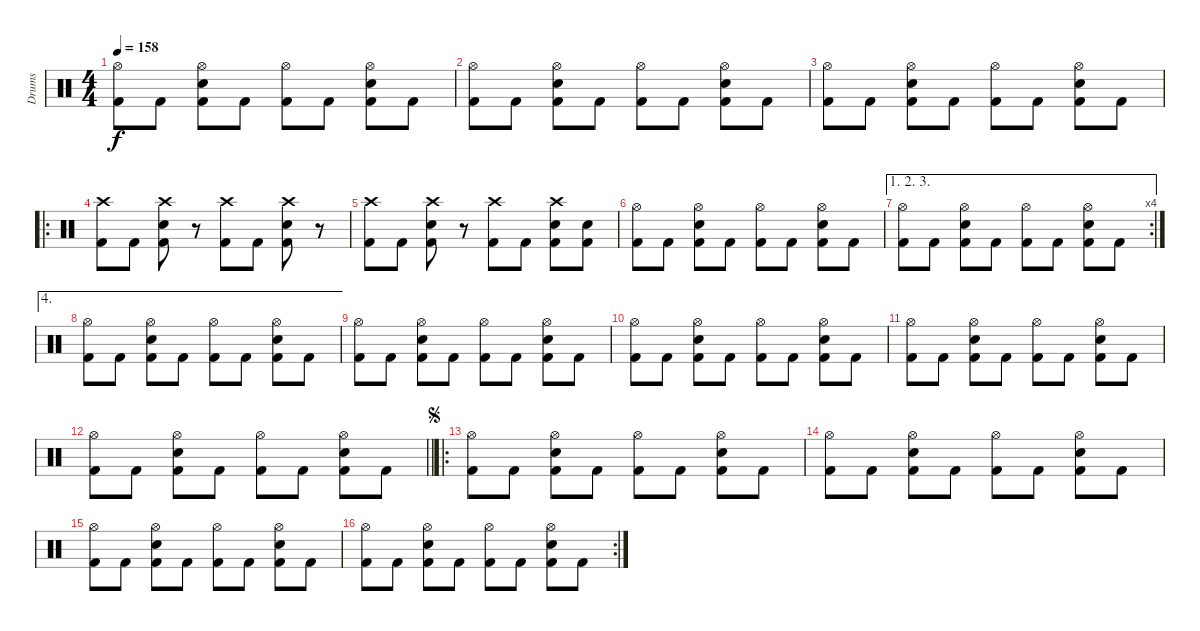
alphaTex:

\track ("Drums" "Drums") {instrument percussion}
\staff {score}
\articulation defaults
\ts (4 4)
\tempo 158
\clef neutral
\ks c
("Hi-Hat (open)" "Kick (hit) 2").8{dy f} "Kick (hit) 2".8 ("Hi-Hat (open)" "Electric Snare (hit)" "Kick (hit) 2").8 "Kick (hit) 2".8 ("Hi-Hat (open)" "Kick (hit) 2").8 "Kick (hit) 2".8 ("Hi-Hat (open)" "Kick (hit) 2" "Electric Snare (hit)").8 "Kick (hit) 2".8 |
("Hi-Hat (open)" "Kick (hit) 2").8 "Kick (hit) 2".8 ("Hi-Hat (open)" "Electric Snare (hit)" "Kick (hit) 2").8 "Kick (hit) 2".8 ("Hi-Hat (open)" "Kick (hit) 2").8 "Kick (hit) 2".8 ("Hi-Hat (open)" "Kick (hit) 2" "Electric Snare (hit)").8 "Kick (hit) 2".8 |
("Hi-Hat (open)" "Kick (hit) 2").8 "Kick (hit) 2".8 ("Hi-Hat (open)" "Electric Snare (hit)" "Kick (hit) 2").8 "Kick (hit) 2".8 ("Hi-Hat (open)" "Kick (hit) 2").8 "Kick (hit) 2".8 ("Hi-Hat (open)" "Kick (hit) 2" "Electric Snare (hit)").8 "Kick (hit) 2".8 |
\ro
("Crash high (hit)" "Kick (hit) 2").8 "Kick (hit) 2".8 ("Crash high (hit)" "Electric Snare (hit)" "Kick (hit) 2").8 r.8 ("Crash high (hit)" "Kick (hit) 2").8 "Kick (hit) 2".8 ("Crash high (hit)" "Electric Snare (hit)" "Kick (hit) 2").8 r.8 |
("Crash high (hit)" "Kick (hit) 2").8 "Kick (hit) 2".8 ("Crash high (hit)" "Electric Snare (hit)" "Kick (hit) 2").8 r.8 ("Crash high (hit)" "Kick (hit) 2").8 "Kick (hit) 2".8 ("Crash high (hit)" "Electric Snare (hit)" "Kick (hit) 2").8 ("Electric Snare (hit)" "Kick (hit) 2").8 |
("Hi-Hat (open)" "Kick (hit) 2").8 "Kick (hit) 2".8 ("Hi-Hat (open)" "Electric Snare (hit)" "Kick (hit) 2").8 "Kick (hit) 2".8 ("Hi-Hat (open)" "Kick (hit) 2").8 "Kick (hit) 2".8 ("Hi-Hat (open)" "Kick (hit) 2" "Electric Snare (hit)").8 "Kick (hit) 2".8 |
\ae (1 2 3)
\rc 4
("Hi-Hat (open)" "Kick (hit) 2").8 "Kick (hit) 2".8 ("Hi-Hat (open)" "Electric Snare (hit)" "Kick (hit) 2").8 "Kick (hit) 2".8 ("Hi-Hat (open)" "Kick (hit) 2").8 "Kick (hit) 2".8 ("Hi-Hat (open)" "Kick (hit) 2" "Electric Snare (hit)").8 "Kick (hit) 2".8 |
\ae 4
("Hi-Hat (open)" "Kick (hit) 2").8 "Kick (hit) 2".8 ("Hi-Hat (open)" "Electric Snare (hit)" "Kick (hit) 2").8 "Kick (hit) 2".8 ("Hi-Hat (open)" "Kick (hit) 2").8 "Kick (hit) 2".8 ("Hi-Hat (open)" "Kick (hit) 2" "Electric Snare (hit)").8 "Kick (hit) 2".8 |
("Hi-Hat (open)" "Kick (hit) 2").8 "Kick (hit) 2".8 ("Hi-Hat (open)" "Electric Snare (hit)" "Kick (hit) 2").8 "Kick (hit) 2".8 ("Hi-Hat (open)" "Kick (hit) 2").8 "Kick (hit) 2".8 ("Hi-Hat (open)" "Kick (hit) 2" "Electric Snare (hit)").8 "Kick (hit) 2".8 |
("Hi-Hat (open)" "Kick (hit) 2").8 "Kick (hit) 2".8 ("Hi-Hat (open)" "Electric Snare (hit)" "Kick (hit) 2").8 "Kick (hit) 2".8 ("Hi-Hat (open)" "Kick (hit) 2").8 "Kick (hit) 2".8 ("Hi-Hat (open)" "Kick (hit) 2" "Electric Snare (hit)").8 "Kick (hit) 2".8 |
("Hi-Hat (open)" "Kick (hit) 2").8 "Kick (hit) 2".8 ("Hi-Hat (open)" "Electric Snare (hit)" "Kick (hit) 2").8 "Kick (hit) 2".8 ("Hi-Hat (open)" "Kick (hit) 2").8 "Kick (hit) 2".8 ("Hi-Hat (open)" "Kick (hit) 2" "Electric Snare (hit)").8 "Kick (hit) 2".8 |
\barLineRight lightlight
("Hi-Hat (open)" "Kick (hit) 2").8 "Kick (hit) 2".8 ("Hi-Hat (open)" "Electric Snare (hit)" "Kick (hit) 2").8 "Kick (hit) 2".8 ("Hi-Hat (open)" "Kick (hit) 2").8 "Kick (hit) 2".8 ("Hi-Hat (open)" "Kick (hit) 2" "Electric Snare (hit)").8 "Kick (hit) 2".8 |
\ro
\jump segno
("Hi-Hat (open)" "Kick (hit) 2").8 "Kick (hit) 2".8 ("Hi-Hat (open)" "Electric Snare (hit)" "Kick (hit) 2").8 "Kick (hit) 2".8 ("Hi-Hat (open)" "Kick (hit) 2").8 "Kick (hit) 2".8 ("Hi-Hat (open)" "Kick (hit) 2" "Electric Snare (hit)").8 "Kick (hit) 2".8 |
("Hi-Hat (open)" "Kick (hit) 2").8 "Kick (hit) 2".8 ("Hi-Hat (open)" "Electric Snare (hit)" "Kick (hit) 2").8 "Kick (hit) 2".8 ("Hi-Hat (open)" "Kick (hit) 2").8 "Kick (hit) 2".8 ("Hi-Hat (open)" "Kick (hit) 2" "Electric Snare (hit)").8 "Kick (hit) 2".8 |
("Hi-Hat (open)" "Kick (hit) 2").8 "Kick (hit) 2".8 ("Hi-Hat (open)" "Electric Snare (hit)" "Kick (hit) 2").8 "Kick (hit) 2".8 ("Hi-Hat (open)" "Kick (hit) 2").8 "Kick (hit) 2".8 ("Hi-Hat (open)" "Kick (hit) 2" "Electric Snare (hit)").8 "Kick (hit) 2".8 |
\rc 2
("Hi-Hat (open)" "Kick (hit) 2").8 "Kick (hit) 2".8 ("Hi-Hat (open)" "Electric Snare (hit)" "Kick (hit) 2").8 "Kick (hit) 2".8 ("Hi-Hat (open)" "Kick (hit) 2").8 "Kick (hit) 2".8 ("Hi-Hat (open)" "Kick (hit) 2" "Electric Snare (hit)").8 "Kick (hit) 2".8
